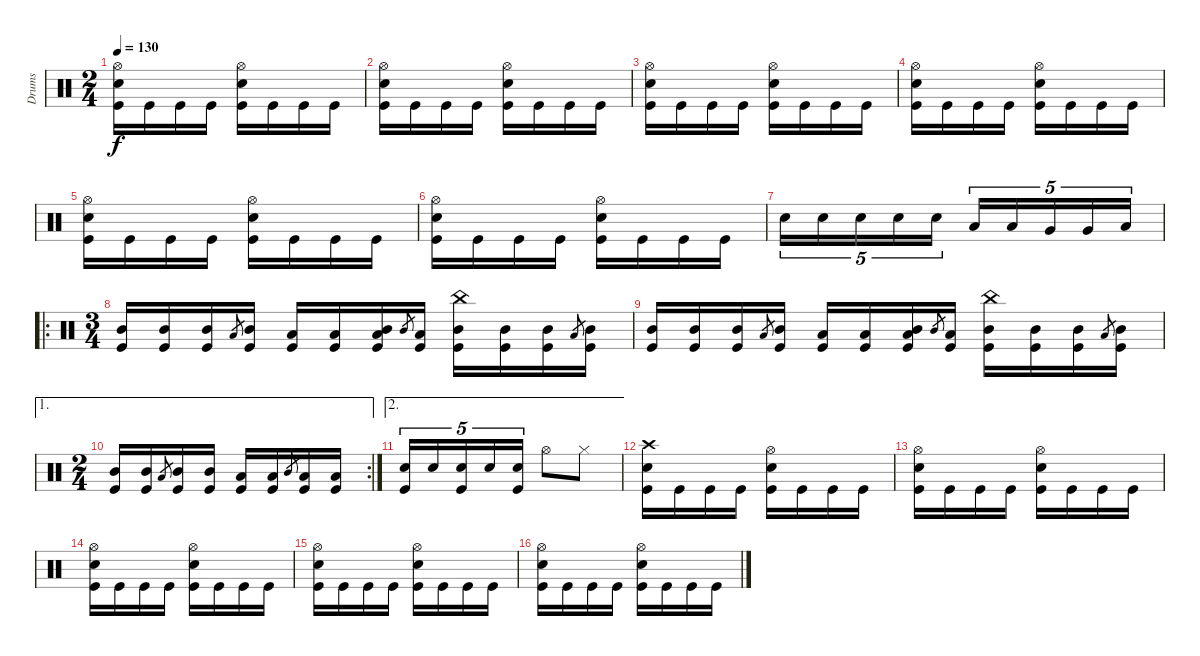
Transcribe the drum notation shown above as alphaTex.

\track ("Drums" "Drums") {instrument percussion}
\staff {score}
\articulation defaults
\ts (2 4)
\tempo 130
\clef neutral
\ks c
("Hi-Hat (open)" "Electric Snare (hit)" "Kick (hit)").16{dy f} "Kick (hit)".16 "Kick (hit)".16 "Kick (hit)".16 ("Hi-Hat (open)" "Electric Snare (hit)" "Kick (hit)").16 "Kick (hit)".16 "Kick (hit)".16 "Kick (hit)".16 |
("Hi-Hat (open)" "Electric Snare (hit)" "Kick (hit)").16 "Kick (hit)".16 "Kick (hit)".16 "Kick (hit)".16 ("Hi-Hat (open)" "Electric Snare (hit)" "Kick (hit)").16 "Kick (hit)".16 "Kick (hit)".16 "Kick (hit)".16 |
("Hi-Hat (open)" "Electric Snare (hit)" "Kick (hit)").16 "Kick (hit)".16 "Kick (hit)".16 "Kick (hit)".16 ("Hi-Hat (open)" "Electric Snare (hit)" "Kick (hit)").16 "Kick (hit)".16 "Kick (hit)".16 "Kick (hit)".16 |
("Hi-Hat (open)" "Electric Snare (hit)" "Kick (hit)").16 "Kick (hit)".16 "Kick (hit)".16 "Kick (hit)".16 ("Hi-Hat (open)" "Electric Snare (hit)" "Kick (hit)").16 "Kick (hit)".16 "Kick (hit)".16 "Kick (hit)".16 |
("Hi-Hat (open)" "Electric Snare (hit)" "Kick (hit)").16 "Kick (hit)".16 "Kick (hit)".16 "Kick (hit)".16 ("Hi-Hat (open)" "Electric Snare (hit)" "Kick (hit)").16 "Kick (hit)".16 "Kick (hit)".16 "Kick (hit)".16 |
("Hi-Hat (open)" "Electric Snare (hit)" "Kick (hit)").16 "Kick (hit)".16 "Kick (hit)".16 "Kick (hit)".16 ("Hi-Hat (open)" "Electric Snare (hit)" "Kick (hit)").16 "Kick (hit)".16 "Kick (hit)".16 "Kick (hit)".16 |
"Electric Snare (hit)".16{tu (5 4)} "Electric Snare (hit)".16{tu (5 4)} "Electric Snare (hit)".16{tu (5 4)} "Electric Snare (hit)".16{tu (5 4)} "Electric Snare (hit)".16{tu (5 4)} "Low Tom (hit)".16{tu (5 4)} "Low Tom (hit)".16{tu (5 4)} "Very Low Tom (hit)".16{tu (5 4)} "Very Low Tom (hit)".16{tu (5 4)} "Low Floor Tom (hit)".16{tu (5 4)} |
\ro
\ts (3 4)
("Mid Tom (hit)" "Kick (hit)").16 ("Mid Tom (hit)" "Kick (hit)").16 ("Mid Tom (hit)" "Kick (hit)").16 "Low Tom (hit)".8{gr} ("Mid Tom (hit)" "Kick (hit)").16 ("Low Tom (hit)" "Kick (hit)").16 ("Low Tom (hit)" "Kick (hit)").16 ("Mid Tom (hit)" "Low Tom (hit)" "Kick (hit)").16 "Mid Tom (hit)".8{gr} ("Low Tom (hit)" "Kick (hit)").16 ("China (hit)" "Mid Tom (hit)" "Kick (hit)").16 ("Mid Tom (hit)" "Kick (hit)").16 ("Mid Tom (hit)" "Kick (hit)").16 "Low Tom (hit)".8{gr} ("Mid Tom (hit)" "Kick (hit)").16 |
("Mid Tom (hit)" "Kick (hit)").16 ("Mid Tom (hit)" "Kick (hit)").16 ("Mid Tom (hit)" "Kick (hit)").16 "Low Tom (hit)".8{gr} ("Mid Tom (hit)" "Kick (hit)").16 ("Low Tom (hit)" "Kick (hit)").16 ("Low Tom (hit)" "Kick (hit)").16 ("Mid Tom (hit)" "Low Tom (hit)" "Kick (hit)").16 "Mid Tom (hit)".8{gr} ("Low Tom (hit)" "Kick (hit)").16 ("China (hit)" "Mid Tom (hit)" "Kick (hit)").16 ("Mid Tom (hit)" "Kick (hit)").16 ("Mid Tom (hit)" "Kick (hit)").16 "Low Tom (hit)".8{gr} ("Mid Tom (hit)" "Kick (hit)").16 |
\ae 1
\rc 2
\ts (2 4)
("Mid Tom (hit)" "Kick (hit)").16 ("Mid Tom (hit)" "Kick (hit)").16 "Low Tom (hit)".8{gr} ("Mid Tom (hit)" "Kick (hit)").16 ("Mid Tom (hit)" "Kick (hit)").16 ("Low Tom (hit)" "Kick (hit)").16 ("Low Tom (hit)" "Kick (hit)").16 "Mid Tom (hit)".8{gr} ("Low Tom (hit)" "Kick (hit)").16 ("Low Tom (hit)" "Kick (hit)").16 |
\ae 2
("Electric Snare (hit)" "Kick (hit)").16{tu (5 4)} "Electric Snare (hit)".16{tu (5 4)} ("Electric Snare (hit)" "Kick (hit)").16{tu (5 4)} "Electric Snare (hit)".16{tu (5 4)} ("Electric Snare (hit)" "Kick (hit)").16{tu (5 4)} "Hi-Hat (open)".8 "Hi-Hat (closed)".8 |
("Crash high (hit)" "Electric Snare (hit)" "Kick (hit)").16 "Kick (hit)".16 "Kick (hit)".16 "Kick (hit)".16 ("Hi-Hat (open)" "Electric Snare (hit)" "Kick (hit)").16 "Kick (hit)".16 "Kick (hit)".16 "Kick (hit)".16 |
("Hi-Hat (open)" "Electric Snare (hit)" "Kick (hit)").16 "Kick (hit)".16 "Kick (hit)".16 "Kick (hit)".16 ("Hi-Hat (open)" "Electric Snare (hit)" "Kick (hit)").16 "Kick (hit)".16 "Kick (hit)".16 "Kick (hit)".16 |
("Hi-Hat (open)" "Electric Snare (hit)" "Kick (hit)").16 "Kick (hit)".16 "Kick (hit)".16 "Kick (hit)".16 ("Hi-Hat (open)" "Electric Snare (hit)" "Kick (hit)").16 "Kick (hit)".16 "Kick (hit)".16 "Kick (hit)".16 |
("Hi-Hat (open)" "Electric Snare (hit)" "Kick (hit)").16 "Kick (hit)".16 "Kick (hit)".16 "Kick (hit)".16 ("Hi-Hat (open)" "Electric Snare (hit)" "Kick (hit)").16 "Kick (hit)".16 "Kick (hit)".16 "Kick (hit)".16 |
("Hi-Hat (open)" "Electric Snare (hit)" "Kick (hit)").16 "Kick (hit)".16 "Kick (hit)".16 "Kick (hit)".16 ("Hi-Hat (open)" "Electric Snare (hit)" "Kick (hit)").16 "Kick (hit)".16 "Kick (hit)".16 "Kick (hit)".16
